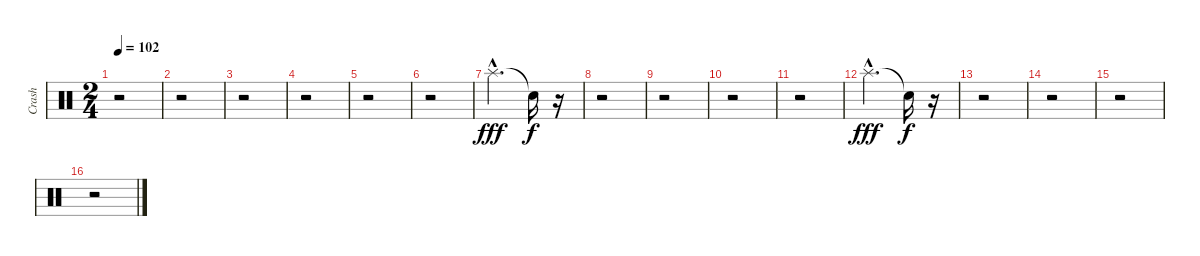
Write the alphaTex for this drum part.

\track ("Crash" "Crash") {instrument percussion}
\staff {score}
\articulation defaults
\ts (2 4)
\tempo 102
\clef neutral
\ks c
r.2{dy f} |
r.2 |
r.2 |
r.2 |
r.2 |
r.2 |
"Splash (hit)"{hac}.4{d dy fff} "Snare (hit)"{t}.16{dy f} r.16 |
r.2 |
r.2 |
r.2 |
r.2 |
"Splash (hit)"{hac}.4{d dy fff} "Snare (hit)"{t}.16{dy f} r.16 |
r.2 |
r.2 |
r.2 |
r.2
